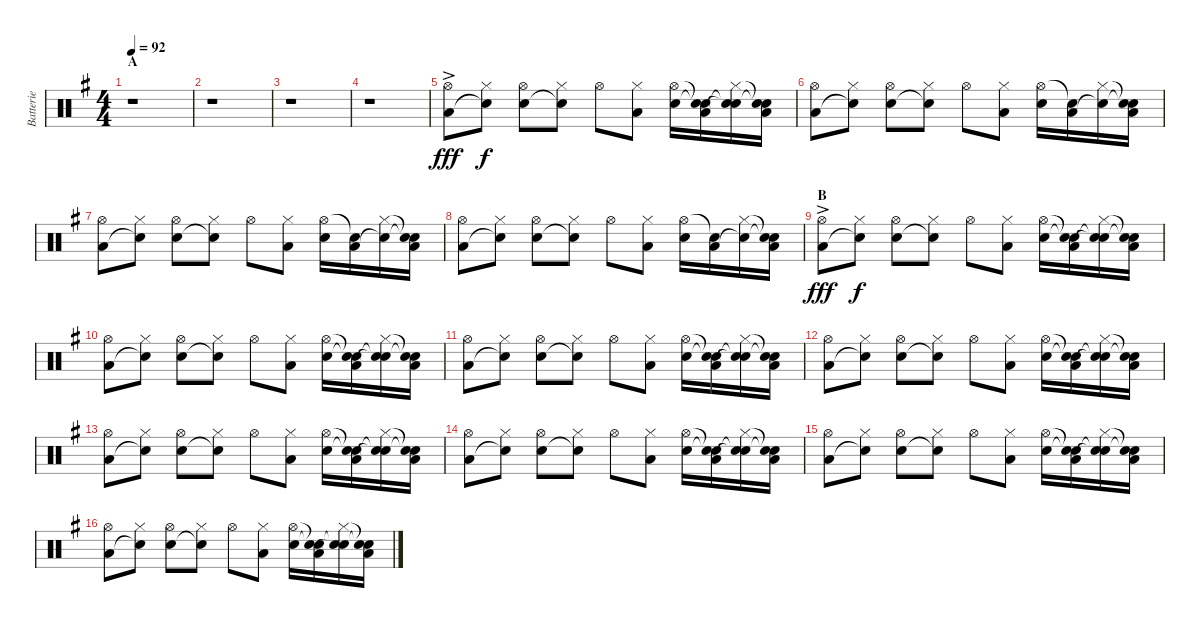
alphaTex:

\track ("Batterie" "Batterie") {instrument percussion}
\staff {score}
\articulation defaults
\ts (4 4)
\section ("" "A")
\tempo 92
\clef neutral
\ks g
r.1{dy fff} |
r.1 |
r.1 |
r.1 |
("Hi-Hat (open)"{ac} "Low Floor Tom (hit)").8 ("Hi-Hat (closed)" "Snare (hit)"{t}).8{dy f} ("Hi-Hat (open)" "Electric Snare (hit)").8 ("Hi-Hat (closed)" "Snare (hit)"{t}).8 "Hi-Hat (open)".8 ("Hi-Hat (closed)" "Low Floor Tom (hit)").8 ("Hi-Hat (open)" "Electric Snare (hit)").16 ("Snare (hit)"{t} "Snare (hit)"{t} "Low Floor Tom (hit)").16 ("Hi-Hat (closed)" "Snare (hit)"{t} "Snare (hit)"{t}).16 ("Snare (hit)"{t} "Snare (hit)"{t} "Low Floor Tom (hit)").16 |
("Hi-Hat (open)" "Low Floor Tom (hit)").8 ("Hi-Hat (closed)" "Snare (hit)"{t}).8 ("Hi-Hat (open)" "Electric Snare (hit)").8 ("Hi-Hat (closed)" "Snare (hit)"{t}).8 "Hi-Hat (open)".8 ("Hi-Hat (closed)" "Low Floor Tom (hit)").8 ("Hi-Hat (open)" "Electric Snare (hit)").16 ("Snare (hit)"{t} "Low Floor Tom (hit)").16 ("Hi-Hat (closed)" "Snare (hit)"{t}).16 ("Snare (hit)"{t} "Snare (hit)"{t} "Low Floor Tom (hit)").16 |
("Hi-Hat (open)" "Low Floor Tom (hit)").8 ("Hi-Hat (closed)" "Snare (hit)"{t}).8 ("Hi-Hat (open)" "Electric Snare (hit)").8 ("Hi-Hat (closed)" "Snare (hit)"{t}).8 "Hi-Hat (open)".8 ("Hi-Hat (closed)" "Low Floor Tom (hit)").8 ("Hi-Hat (open)" "Electric Snare (hit)").16 ("Snare (hit)"{t} "Low Floor Tom (hit)").16 ("Hi-Hat (closed)" "Snare (hit)"{t}).16 ("Snare (hit)"{t} "Snare (hit)"{t} "Low Floor Tom (hit)").16 |
("Hi-Hat (open)" "Low Floor Tom (hit)").8 ("Hi-Hat (closed)" "Snare (hit)"{t}).8 ("Hi-Hat (open)" "Electric Snare (hit)").8 ("Hi-Hat (closed)" "Snare (hit)"{t}).8 "Hi-Hat (open)".8 ("Hi-Hat (closed)" "Low Floor Tom (hit)").8 ("Hi-Hat (open)" "Electric Snare (hit)").16 ("Snare (hit)"{t} "Low Floor Tom (hit)").16 ("Hi-Hat (closed)" "Snare (hit)"{t}).16 ("Snare (hit)"{t} "Snare (hit)"{t} "Low Floor Tom (hit)").16 |
\section ("" "B")
("Hi-Hat (open)"{ac} "Low Floor Tom (hit)").8{dy fff} ("Hi-Hat (closed)" "Snare (hit)"{t}).8{dy f} ("Hi-Hat (open)" "Electric Snare (hit)").8 ("Hi-Hat (closed)" "Snare (hit)"{t}).8 "Hi-Hat (open)".8 ("Hi-Hat (closed)" "Low Floor Tom (hit)").8 ("Hi-Hat (open)" "Electric Snare (hit)").16 ("Snare (hit)"{t} "Snare (hit)"{t} "Low Floor Tom (hit)").16 ("Hi-Hat (closed)" "Snare (hit)"{t} "Snare (hit)"{t}).16 ("Snare (hit)"{t} "Snare (hit)"{t} "Low Floor Tom (hit)").16 |
("Hi-Hat (open)" "Low Floor Tom (hit)").8 ("Hi-Hat (closed)" "Snare (hit)"{t}).8 ("Hi-Hat (open)" "Electric Snare (hit)").8 ("Hi-Hat (closed)" "Snare (hit)"{t}).8 "Hi-Hat (open)".8 ("Hi-Hat (closed)" "Low Floor Tom (hit)").8 ("Hi-Hat (open)" "Electric Snare (hit)").16 ("Snare (hit)"{t} "Snare (hit)"{t} "Low Floor Tom (hit)").16 ("Hi-Hat (closed)" "Snare (hit)"{t} "Snare (hit)"{t}).16 ("Snare (hit)"{t} "Snare (hit)"{t} "Low Floor Tom (hit)").16 |
("Hi-Hat (open)" "Low Floor Tom (hit)").8 ("Hi-Hat (closed)" "Snare (hit)"{t}).8 ("Hi-Hat (open)" "Electric Snare (hit)").8 ("Hi-Hat (closed)" "Snare (hit)"{t}).8 "Hi-Hat (open)".8 ("Hi-Hat (closed)" "Low Floor Tom (hit)").8 ("Hi-Hat (open)" "Electric Snare (hit)").16 ("Snare (hit)"{t} "Snare (hit)"{t} "Low Floor Tom (hit)").16 ("Hi-Hat (closed)" "Snare (hit)"{t} "Snare (hit)"{t}).16 ("Snare (hit)"{t} "Snare (hit)"{t} "Low Floor Tom (hit)").16 |
("Hi-Hat (open)" "Low Floor Tom (hit)").8 ("Hi-Hat (closed)" "Snare (hit)"{t}).8 ("Hi-Hat (open)" "Electric Snare (hit)").8 ("Hi-Hat (closed)" "Snare (hit)"{t}).8 "Hi-Hat (open)".8 ("Hi-Hat (closed)" "Low Floor Tom (hit)").8 ("Hi-Hat (open)" "Electric Snare (hit)").16 ("Snare (hit)"{t} "Snare (hit)"{t} "Low Floor Tom (hit)").16 ("Hi-Hat (closed)" "Snare (hit)"{t} "Snare (hit)"{t}).16 ("Snare (hit)"{t} "Snare (hit)"{t} "Low Floor Tom (hit)").16 |
("Hi-Hat (open)" "Low Floor Tom (hit)").8 ("Hi-Hat (closed)" "Snare (hit)"{t}).8 ("Hi-Hat (open)" "Electric Snare (hit)").8 ("Hi-Hat (closed)" "Snare (hit)"{t}).8 "Hi-Hat (open)".8 ("Hi-Hat (closed)" "Low Floor Tom (hit)").8 ("Hi-Hat (open)" "Electric Snare (hit)").16 ("Snare (hit)"{t} "Snare (hit)"{t} "Low Floor Tom (hit)").16 ("Hi-Hat (closed)" "Snare (hit)"{t} "Snare (hit)"{t}).16 ("Snare (hit)"{t} "Snare (hit)"{t} "Low Floor Tom (hit)").16 |
("Hi-Hat (open)" "Low Floor Tom (hit)").8 ("Hi-Hat (closed)" "Snare (hit)"{t}).8 ("Hi-Hat (open)" "Electric Snare (hit)").8 ("Hi-Hat (closed)" "Snare (hit)"{t}).8 "Hi-Hat (open)".8 ("Hi-Hat (closed)" "Low Floor Tom (hit)").8 ("Hi-Hat (open)" "Electric Snare (hit)").16 ("Snare (hit)"{t} "Snare (hit)"{t} "Low Floor Tom (hit)").16 ("Hi-Hat (closed)" "Snare (hit)"{t} "Snare (hit)"{t}).16 ("Snare (hit)"{t} "Snare (hit)"{t} "Low Floor Tom (hit)").16 |
("Hi-Hat (open)" "Low Floor Tom (hit)").8 ("Hi-Hat (closed)" "Snare (hit)"{t}).8 ("Hi-Hat (open)" "Electric Snare (hit)").8 ("Hi-Hat (closed)" "Snare (hit)"{t}).8 "Hi-Hat (open)".8 ("Hi-Hat (closed)" "Low Floor Tom (hit)").8 ("Hi-Hat (open)" "Electric Snare (hit)").16 ("Snare (hit)"{t} "Snare (hit)"{t} "Low Floor Tom (hit)").16 ("Hi-Hat (closed)" "Snare (hit)"{t} "Snare (hit)"{t}).16 ("Snare (hit)"{t} "Snare (hit)"{t} "Low Floor Tom (hit)").16 |
("Hi-Hat (open)" "Low Floor Tom (hit)").8 ("Hi-Hat (closed)" "Snare (hit)"{t}).8 ("Hi-Hat (open)" "Electric Snare (hit)").8 ("Hi-Hat (closed)" "Snare (hit)"{t}).8 "Hi-Hat (open)".8 ("Hi-Hat (closed)" "Low Floor Tom (hit)").8 ("Hi-Hat (open)" "Electric Snare (hit)").16 ("Snare (hit)"{t} "Snare (hit)"{t} "Low Floor Tom (hit)").16 ("Hi-Hat (closed)" "Snare (hit)"{t} "Snare (hit)"{t}).16 ("Snare (hit)"{t} "Snare (hit)"{t} "Low Floor Tom (hit)").16
